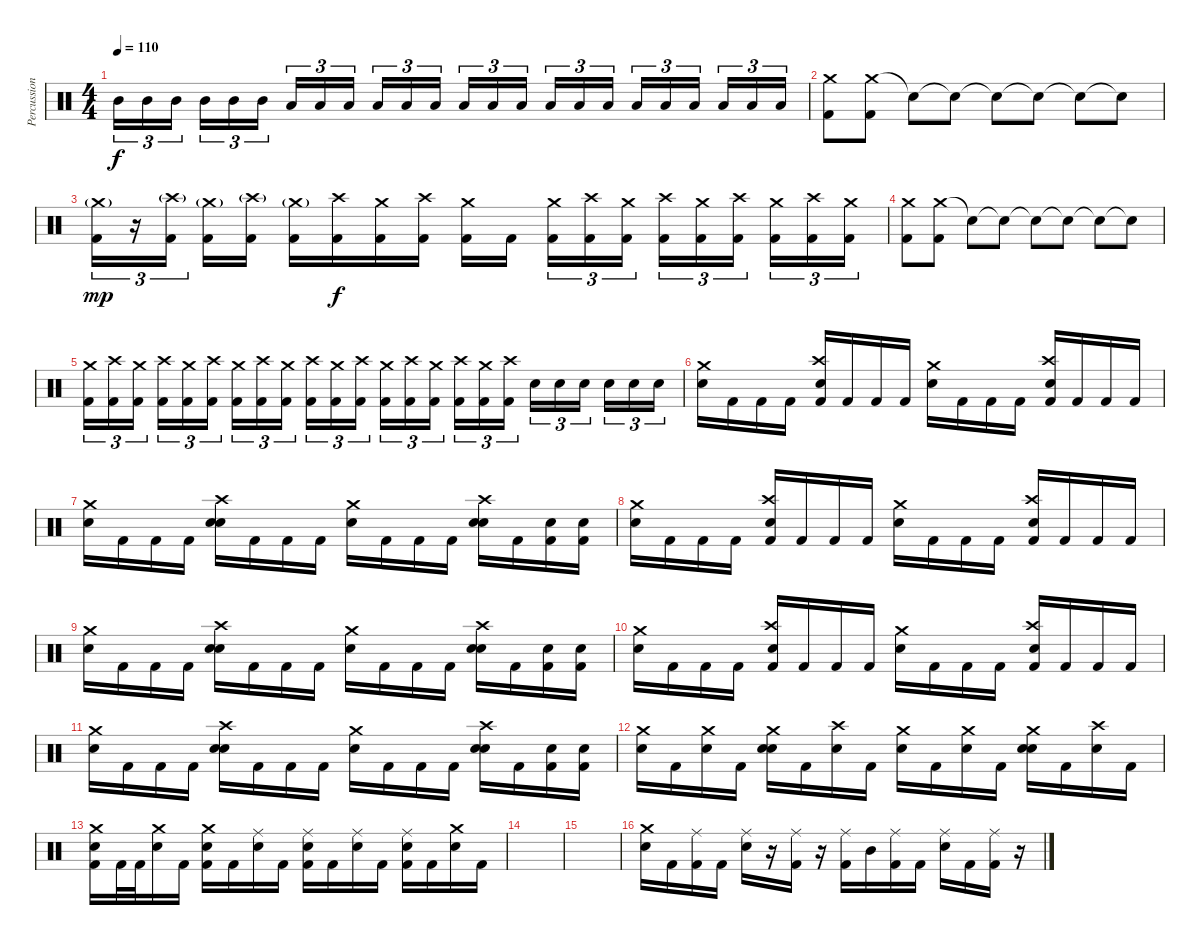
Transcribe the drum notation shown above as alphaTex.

\track ("Percussion" "Percussion") {instrument percussion}
\staff {score}
\articulation defaults
\ts (4 4)
\tempo 110
\clef neutral
\ks c "Mid Tom (hit)".16{tu (3 2) dy f} "Mid Tom (hit)".16{tu (3 2)} "Mid Tom (hit)".16{tu (3 2) beam splitsecondary} "Mid Tom (hit)".16{tu (3 2)} "Mid Tom (hit)".16{tu (3 2)} "Mid Tom (hit)".16{tu (3 2)} "Low Tom (hit)".16{tu (3 2)} "Low Tom (hit)".16{tu (3 2)} "Low Tom (hit)".16{tu (3 2) beam splitsecondary} "Low Tom (hit)".16{tu (3 2)} "Low Tom (hit)".16{tu (3 2)} "Low Tom (hit)".16{tu (3 2)} "Low Floor Tom (hit)".16{tu (3 2)} "Low Floor Tom (hit)".16{tu (3 2)} "Low Floor Tom (hit)".16{tu (3 2) beam splitsecondary} "Low Floor Tom (hit)".16{tu (3 2)} "Low Floor Tom (hit)".16{tu (3 2)} "Low Floor Tom (hit)".16{tu (3 2)} "Low Floor Tom (hit)".16{tu (3 2)} "Low Floor Tom (hit)".16{tu (3 2)} "Low Floor Tom (hit)".16{tu (3 2) beam splitsecondary} "Low Floor Tom (hit)".16{tu (3 2)} "Low Floor Tom (hit)".16{tu (3 2)} "Low Floor Tom (hit)".16{tu (3 2)}
|
("Crash medium (hit)" "Kick (hit) 2").8 ("Crash medium (hit)" "Kick (hit) 2").8 "Snare (hit)"{t}.8 "Snare (hit)"{t}.8 "Snare (hit)"{t}.8 "Snare (hit)"{t}.8 "Snare (hit)"{t}.8 "Snare (hit)"{t}.8 |
("Kick (hit) 2" "Crash medium (hit)"{g}).16{tu (3 2) dy mp} r.16{tu (3 2)} ("Kick (hit) 2" "Crash high (hit)"{g}).16{tu (3 2) beam splitsecondary} ("Kick (hit) 2" "Crash medium (hit)"{g}).16 ("Kick (hit) 2" "Crash high (hit)"{g}).16 ("Kick (hit) 2" "Crash medium (hit)"{g}).16 ("Kick (hit) 2" "Crash high (hit)").16{dy f} ("Kick (hit) 2" "Crash medium (hit)").16 ("Kick (hit) 2" "Crash high (hit)").16 ("Kick (hit) 2" "Crash medium (hit)").16 "Kick (hit) 2".16{beam splitsecondary} ("Kick (hit) 2" "Crash medium (hit)").16{tu (3 2)} ("Kick (hit) 2" "Crash high (hit)").16{tu (3 2)} ("Kick (hit) 2" "Crash medium (hit)").16{tu (3 2)} ("Kick (hit) 2" "Crash high (hit)").16{tu (3 2)} ("Kick (hit) 2" "Crash medium (hit)").16{tu (3 2)} ("Kick (hit) 2" "Crash high (hit)").16{tu (3 2) beam splitsecondary} ("Kick (hit) 2" "Crash medium (hit)").16{tu (3 2)} ("Kick (hit) 2" "Crash high (hit)").16{tu (3 2)} ("Kick (hit) 2" "Crash medium (hit)").16{tu (3 2)} |
("Crash medium (hit)" "Kick (hit) 2").8 ("Crash medium (hit)" "Kick (hit) 2").8 "Snare (hit)"{t}.8 "Snare (hit)"{t}.8 "Snare (hit)"{t}.8 "Snare (hit)"{t}.8 "Snare (hit)"{t}.8 "Snare (hit)"{t}.8 |
("Crash medium (hit)" "Kick (hit) 2").16{tu (3 2)} ("Crash high (hit)" "Kick (hit) 2").16{tu (3 2)} ("Crash medium (hit)" "Kick (hit) 2").16{tu (3 2) beam splitsecondary} ("Crash high (hit)" "Kick (hit) 2").16{tu (3 2)} ("Crash medium (hit)" "Kick (hit) 2").16{tu (3 2)} ("Crash high (hit)" "Kick (hit) 2").16{tu (3 2)} ("Crash medium (hit)" "Kick (hit) 2").16{tu (3 2)} ("Crash high (hit)" "Kick (hit) 2").16{tu (3 2)} ("Crash medium (hit)" "Kick (hit) 2").16{tu (3 2) beam splitsecondary} ("Crash high (hit)" "Kick (hit) 2").16{tu (3 2)} ("Crash medium (hit)" "Kick (hit) 2").16{tu (3 2)} ("Crash high (hit)" "Kick (hit) 2").16{tu (3 2)} ("Crash medium (hit)" "Kick (hit) 2").16{tu (3 2)} ("Crash high (hit)" "Kick (hit) 2").16{tu (3 2)} ("Crash medium (hit)" "Kick (hit) 2").16{tu (3 2) beam splitsecondary} ("Crash high (hit)" "Kick (hit) 2").16{tu (3 2)} ("Crash medium (hit)" "Kick (hit) 2").16{tu (3 2)} ("Crash high (hit)" "Kick (hit) 2").16{tu (3 2)} "Electric Snare (hit)".16{tu (3 2)} "Electric Snare (hit)".16{tu (3 2)} "Electric Snare (hit)".16{tu (3 2) beam splitsecondary} "Electric Snare (hit)".16{tu (3 2)} "Electric Snare (hit)".16{tu (3 2)} "Electric Snare (hit)".16{tu (3 2)} |
("Crash medium (hit)" "Electric Snare (hit)").16 "Kick (hit) 2".16 "Kick (hit) 2".16 "Kick (hit) 2".16 ("Electric Snare (hit)" "Crash high (hit)" "Kick (hit) 2").16 "Kick (hit) 2".16 "Kick (hit) 2".16 "Kick (hit) 2".16 ("Crash medium (hit)" "Electric Snare (hit)").16 "Kick (hit) 2".16 "Kick (hit) 2".16 "Kick (hit) 2".16 ("Electric Snare (hit)" "Crash high (hit)" "Kick (hit) 2").16 "Kick (hit) 2".16 "Kick (hit) 2".16 "Kick (hit) 2".16 |
("Crash medium (hit)" "Electric Snare (hit)").16 "Kick (hit) 2".16 "Kick (hit) 2".16 "Kick (hit) 2".16 ("Electric Snare (hit)" "Crash high (hit)" "Electric Snare (hit)").16 "Kick (hit) 2".16 "Kick (hit) 2".16 "Kick (hit) 2".16 ("Crash medium (hit)" "Electric Snare (hit)").16 "Kick (hit) 2".16 "Kick (hit) 2".16 "Kick (hit) 2".16 ("Electric Snare (hit)" "Crash high (hit)" "Electric Snare (hit)").16 "Kick (hit) 2".16 ("Electric Snare (hit)" "Kick (hit) 2").16 ("Electric Snare (hit)" "Kick (hit) 2").16 |
("Crash medium (hit)" "Electric Snare (hit)").16 "Kick (hit) 2".16 "Kick (hit) 2".16 "Kick (hit) 2".16 ("Electric Snare (hit)" "Crash high (hit)" "Kick (hit) 2").16 "Kick (hit) 2".16 "Kick (hit) 2".16 "Kick (hit) 2".16 ("Crash medium (hit)" "Electric Snare (hit)").16 "Kick (hit) 2".16 "Kick (hit) 2".16 "Kick (hit) 2".16 ("Electric Snare (hit)" "Crash high (hit)" "Kick (hit) 2").16 "Kick (hit) 2".16 "Kick (hit) 2".16 "Kick (hit) 2".16 |
("Crash medium (hit)" "Electric Snare (hit)").16 "Kick (hit) 2".16 "Kick (hit) 2".16 "Kick (hit) 2".16 ("Electric Snare (hit)" "Crash high (hit)" "Electric Snare (hit)").16 "Kick (hit) 2".16 "Kick (hit) 2".16 "Kick (hit) 2".16 ("Crash medium (hit)" "Electric Snare (hit)").16 "Kick (hit) 2".16 "Kick (hit) 2".16 "Kick (hit) 2".16 ("Electric Snare (hit)" "Crash high (hit)" "Electric Snare (hit)").16 "Kick (hit) 2".16 ("Electric Snare (hit)" "Kick (hit) 2").16 ("Electric Snare (hit)" "Kick (hit) 2").16 |
("Crash medium (hit)" "Electric Snare (hit)").16 "Kick (hit) 2".16 "Kick (hit) 2".16 "Kick (hit) 2".16 ("Electric Snare (hit)" "Crash high (hit)" "Kick (hit) 2").16 "Kick (hit) 2".16 "Kick (hit) 2".16 "Kick (hit) 2".16 ("Crash medium (hit)" "Electric Snare (hit)").16 "Kick (hit) 2".16 "Kick (hit) 2".16 "Kick (hit) 2".16 ("Electric Snare (hit)" "Crash high (hit)" "Kick (hit) 2").16 "Kick (hit) 2".16 "Kick (hit) 2".16 "Kick (hit) 2".16 |
("Crash medium (hit)" "Electric Snare (hit)").16 "Kick (hit) 2".16 "Kick (hit) 2".16 "Kick (hit) 2".16 ("Electric Snare (hit)" "Crash high (hit)" "Electric Snare (hit)").16 "Kick (hit) 2".16 "Kick (hit) 2".16 "Kick (hit) 2".16 ("Crash medium (hit)" "Electric Snare (hit)").16 "Kick (hit) 2".16 "Kick (hit) 2".16 "Kick (hit) 2".16 ("Electric Snare (hit)" "Crash high (hit)" "Electric Snare (hit)").16 "Kick (hit) 2".16 ("Electric Snare (hit)" "Kick (hit) 2").16 ("Electric Snare (hit)" "Kick (hit) 2").16 |
("Crash medium (hit)" "Electric Snare (hit)").16 "Kick (hit) 2".16 ("Crash medium (hit)" "Electric Snare (hit)").16 "Kick (hit) 2".16 ("Electric Snare (hit)" "Crash medium (hit)" "Electric Snare (hit)").16 "Kick (hit) 2".16 ("Crash high (hit)" "Electric Snare (hit)").16 "Kick (hit) 2".16 ("Crash medium (hit)" "Electric Snare (hit)").16 "Kick (hit) 2".16 ("Crash medium (hit)" "Electric Snare (hit)").16 "Kick (hit) 2".16 ("Electric Snare (hit)" "Crash medium (hit)" "Electric Snare (hit)").16 "Kick (hit) 2".16 ("Crash high (hit)" "Electric Snare (hit)").16 "Kick (hit) 2".16 |
("Electric Snare (hit)" "Crash medium (hit)" "Kick (hit) 2").16 "Kick (hit) 2".32 "Kick (hit) 2".32 ("Crash medium (hit)" "Electric Snare (hit)").16 "Kick (hit) 2".16 ("Electric Snare (hit)" "Crash medium (hit)" "Kick (hit) 2").16 "Kick (hit) 2".16 ("Ride (middle)" "Electric Snare (hit)").16 "Kick (hit) 2".16 ("Electric Snare (hit)" "Ride (middle)" "Kick (hit) 2").16 "Kick (hit) 2".16 ("Ride (middle)" "Electric Snare (hit)").16 "Kick (hit) 2".16 ("Electric Snare (hit)" "Ride (middle)" "Kick (hit) 2").16 "Kick (hit) 2".16 ("Crash medium (hit)" "Electric Snare (hit)").16 "Kick (hit) 2".16 |
|
|
("Crash medium (hit)" "Electric Snare (hit)").16 "Kick (hit) 2".16 ("Ride (middle)" "Kick (hit) 2").16 "Kick (hit) 2".16 ("Ride (middle)" "Electric Snare (hit)").16 r.16 ("Ride (middle)" "Kick (hit) 2").16 r.16 ("Ride (middle)" "Kick (hit) 2").16 "Mid Tom (hit)".16 ("Ride (middle)" "Kick (hit) 2").16 "Kick (hit) 2".16 ("Ride (middle)" "Electric Snare (hit)").16 "Kick (hit) 2".16 ("Ride (middle)" "Kick (hit) 2").16 r.16
